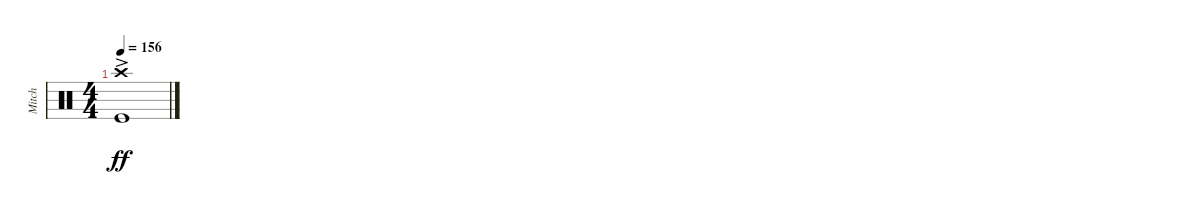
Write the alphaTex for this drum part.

\track ("Mitch" "Mitch") {instrument percussion}
\staff {score}
\articulation defaults
\ts (4 4)
\tempo 156
\clef neutral
\ks c
("Crash high (hit)"{ac} "Kick (hit)").1{dy ff}
